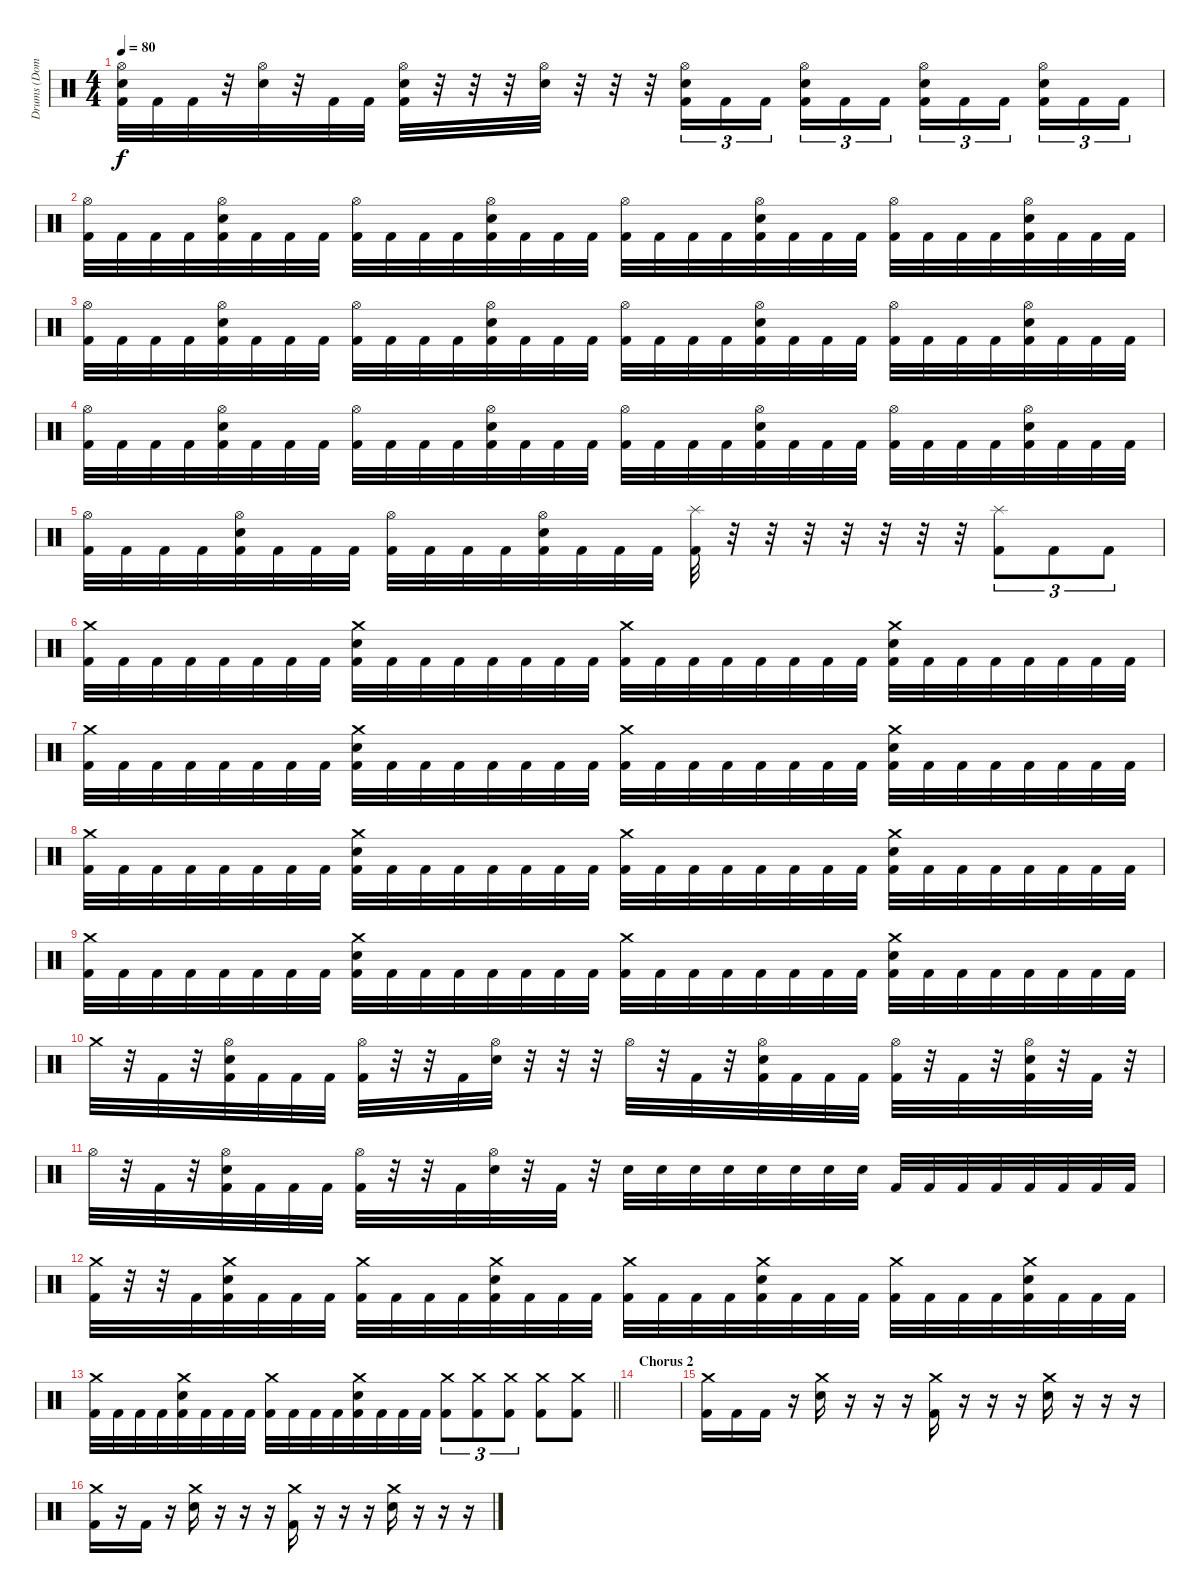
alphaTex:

\track ("Drums (Dominik)" "Drums (Dom") {instrument percussion}
\staff {score}
\articulation defaults
\ts (4 4)
\tempo 80
\clef neutral
\ks c
("Hi-Hat (open)" "Electric Snare (hit)" "Kick (hit) 2").32{dy f} "Kick (hit) 2".32 "Kick (hit) 2".32 r.32 ("Hi-Hat (open)" "Electric Snare (hit)").32 r.32 "Kick (hit) 2".32 "Kick (hit) 2".32 ("Hi-Hat (open)" "Electric Snare (hit)" "Kick (hit) 2").32 r.32 r.32 r.32 ("Hi-Hat (open)" "Electric Snare (hit)").32 r.32 r.32 r.32 ("Hi-Hat (open)" "Electric Snare (hit)" "Kick (hit) 2").16{tu (3 2)} "Kick (hit) 2".16{tu (3 2)} "Kick (hit) 2".16{tu (3 2) beam splitsecondary} ("Hi-Hat (open)" "Electric Snare (hit)" "Kick (hit) 2").16{tu (3 2)} "Kick (hit) 2".16{tu (3 2)} "Kick (hit) 2".16{tu (3 2)} ("Hi-Hat (open)" "Electric Snare (hit)" "Kick (hit) 2").16{tu (3 2)} "Kick (hit) 2".16{tu (3 2)} "Kick (hit) 2".16{tu (3 2) beam splitsecondary} ("Hi-Hat (open)" "Electric Snare (hit)" "Kick (hit) 2").16{tu (3 2)} "Kick (hit) 2".16{tu (3 2)} "Kick (hit) 2".16{tu (3 2)} |
("Hi-Hat (open)" "Kick (hit) 2").32 "Kick (hit) 2".32 "Kick (hit) 2".32 "Kick (hit) 2".32 ("Hi-Hat (open)" "Electric Snare (hit)" "Kick (hit) 2").32 "Kick (hit) 2".32 "Kick (hit) 2".32 "Kick (hit) 2".32 ("Hi-Hat (open)" "Kick (hit) 2").32 "Kick (hit) 2".32 "Kick (hit) 2".32 "Kick (hit) 2".32 ("Hi-Hat (open)" "Electric Snare (hit)" "Kick (hit) 2").32 "Kick (hit) 2".32 "Kick (hit) 2".32 "Kick (hit) 2".32 ("Hi-Hat (open)" "Kick (hit) 2").32 "Kick (hit) 2".32 "Kick (hit) 2".32 "Kick (hit) 2".32 ("Hi-Hat (open)" "Electric Snare (hit)" "Kick (hit) 2").32 "Kick (hit) 2".32 "Kick (hit) 2".32 "Kick (hit) 2".32 ("Hi-Hat (open)" "Kick (hit) 2").32 "Kick (hit) 2".32 "Kick (hit) 2".32 "Kick (hit) 2".32 ("Hi-Hat (open)" "Electric Snare (hit)" "Kick (hit) 2").32 "Kick (hit) 2".32 "Kick (hit) 2".32 "Kick (hit) 2".32 |
("Hi-Hat (open)" "Kick (hit) 2").32 "Kick (hit) 2".32 "Kick (hit) 2".32 "Kick (hit) 2".32 ("Hi-Hat (open)" "Electric Snare (hit)" "Kick (hit) 2").32 "Kick (hit) 2".32 "Kick (hit) 2".32 "Kick (hit) 2".32 ("Hi-Hat (open)" "Kick (hit) 2").32 "Kick (hit) 2".32 "Kick (hit) 2".32 "Kick (hit) 2".32 ("Hi-Hat (open)" "Electric Snare (hit)" "Kick (hit) 2").32 "Kick (hit) 2".32 "Kick (hit) 2".32 "Kick (hit) 2".32 ("Hi-Hat (open)" "Kick (hit) 2").32 "Kick (hit) 2".32 "Kick (hit) 2".32 "Kick (hit) 2".32 ("Hi-Hat (open)" "Electric Snare (hit)" "Kick (hit) 2").32 "Kick (hit) 2".32 "Kick (hit) 2".32 "Kick (hit) 2".32 ("Hi-Hat (open)" "Kick (hit) 2").32 "Kick (hit) 2".32 "Kick (hit) 2".32 "Kick (hit) 2".32 ("Hi-Hat (open)" "Electric Snare (hit)" "Kick (hit) 2").32 "Kick (hit) 2".32 "Kick (hit) 2".32 "Kick (hit) 2".32 |
("Hi-Hat (open)" "Kick (hit) 2").32 "Kick (hit) 2".32 "Kick (hit) 2".32 "Kick (hit) 2".32 ("Hi-Hat (open)" "Electric Snare (hit)" "Kick (hit) 2").32 "Kick (hit) 2".32 "Kick (hit) 2".32 "Kick (hit) 2".32 ("Hi-Hat (open)" "Kick (hit) 2").32 "Kick (hit) 2".32 "Kick (hit) 2".32 "Kick (hit) 2".32 ("Hi-Hat (open)" "Electric Snare (hit)" "Kick (hit) 2").32 "Kick (hit) 2".32 "Kick (hit) 2".32 "Kick (hit) 2".32 ("Hi-Hat (open)" "Kick (hit) 2").32 "Kick (hit) 2".32 "Kick (hit) 2".32 "Kick (hit) 2".32 ("Hi-Hat (open)" "Electric Snare (hit)" "Kick (hit) 2").32 "Kick (hit) 2".32 "Kick (hit) 2".32 "Kick (hit) 2".32 ("Hi-Hat (open)" "Kick (hit) 2").32 "Kick (hit) 2".32 "Kick (hit) 2".32 "Kick (hit) 2".32 ("Hi-Hat (open)" "Electric Snare (hit)" "Kick (hit) 2").32 "Kick (hit) 2".32 "Kick (hit) 2".32 "Kick (hit) 2".32 |
("Hi-Hat (open)" "Kick (hit) 2").32 "Kick (hit) 2".32 "Kick (hit) 2".32 "Kick (hit) 2".32 ("Hi-Hat (open)" "Electric Snare (hit)" "Kick (hit) 2").32 "Kick (hit) 2".32 "Kick (hit) 2".32 "Kick (hit) 2".32 ("Hi-Hat (open)" "Kick (hit) 2").32 "Kick (hit) 2".32 "Kick (hit) 2".32 "Kick (hit) 2".32 ("Hi-Hat (open)" "Electric Snare (hit)" "Kick (hit) 2").32 "Kick (hit) 2".32 "Kick (hit) 2".32 "Kick (hit) 2".32 ("Splash (hit)" "Kick (hit) 2").32 r.32 r.32 r.32 r.32 r.32 r.32 r.32 ("Splash (hit)" "Kick (hit) 2").8{tu (3 2)} "Kick (hit) 2".8{tu (3 2)} "Kick (hit) 2".8{tu (3 2)} |
("Crash medium (hit)" "Kick (hit) 2").32 "Kick (hit) 2".32 "Kick (hit) 2".32 "Kick (hit) 2".32 "Kick (hit) 2".32 "Kick (hit) 2".32 "Kick (hit) 2".32 "Kick (hit) 2".32 ("Crash medium (hit)" "Electric Snare (hit)" "Kick (hit) 2").32 "Kick (hit) 2".32 "Kick (hit) 2".32 "Kick (hit) 2".32 "Kick (hit) 2".32 "Kick (hit) 2".32 "Kick (hit) 2".32 "Kick (hit) 2".32 ("Crash medium (hit)" "Kick (hit) 2").32 "Kick (hit) 2".32 "Kick (hit) 2".32 "Kick (hit) 2".32 "Kick (hit) 2".32 "Kick (hit) 2".32 "Kick (hit) 2".32 "Kick (hit) 2".32 ("Crash medium (hit)" "Electric Snare (hit)" "Kick (hit) 2").32 "Kick (hit) 2".32 "Kick (hit) 2".32 "Kick (hit) 2".32 "Kick (hit) 2".32 "Kick (hit) 2".32 "Kick (hit) 2".32 "Kick (hit) 2".32 |
("Crash medium (hit)" "Kick (hit) 2").32 "Kick (hit) 2".32 "Kick (hit) 2".32 "Kick (hit) 2".32 "Kick (hit) 2".32 "Kick (hit) 2".32 "Kick (hit) 2".32 "Kick (hit) 2".32 ("Crash medium (hit)" "Electric Snare (hit)" "Kick (hit) 2").32 "Kick (hit) 2".32 "Kick (hit) 2".32 "Kick (hit) 2".32 "Kick (hit) 2".32 "Kick (hit) 2".32 "Kick (hit) 2".32 "Kick (hit) 2".32 ("Crash medium (hit)" "Kick (hit) 2").32 "Kick (hit) 2".32 "Kick (hit) 2".32 "Kick (hit) 2".32 "Kick (hit) 2".32 "Kick (hit) 2".32 "Kick (hit) 2".32 "Kick (hit) 2".32 ("Crash medium (hit)" "Electric Snare (hit)" "Kick (hit) 2").32 "Kick (hit) 2".32 "Kick (hit) 2".32 "Kick (hit) 2".32 "Kick (hit) 2".32 "Kick (hit) 2".32 "Kick (hit) 2".32 "Kick (hit) 2".32 |
("Crash medium (hit)" "Kick (hit) 2").32 "Kick (hit) 2".32 "Kick (hit) 2".32 "Kick (hit) 2".32 "Kick (hit) 2".32 "Kick (hit) 2".32 "Kick (hit) 2".32 "Kick (hit) 2".32 ("Crash medium (hit)" "Electric Snare (hit)" "Kick (hit) 2").32 "Kick (hit) 2".32 "Kick (hit) 2".32 "Kick (hit) 2".32 "Kick (hit) 2".32 "Kick (hit) 2".32 "Kick (hit) 2".32 "Kick (hit) 2".32 ("Crash medium (hit)" "Kick (hit) 2").32 "Kick (hit) 2".32 "Kick (hit) 2".32 "Kick (hit) 2".32 "Kick (hit) 2".32 "Kick (hit) 2".32 "Kick (hit) 2".32 "Kick (hit) 2".32 ("Crash medium (hit)" "Electric Snare (hit)" "Kick (hit) 2").32 "Kick (hit) 2".32 "Kick (hit) 2".32 "Kick (hit) 2".32 "Kick (hit) 2".32 "Kick (hit) 2".32 "Kick (hit) 2".32 "Kick (hit) 2".32 |
("Crash medium (hit)" "Kick (hit) 2").32 "Kick (hit) 2".32 "Kick (hit) 2".32 "Kick (hit) 2".32 "Kick (hit) 2".32 "Kick (hit) 2".32 "Kick (hit) 2".32 "Kick (hit) 2".32 ("Crash medium (hit)" "Electric Snare (hit)" "Kick (hit) 2").32 "Kick (hit) 2".32 "Kick (hit) 2".32 "Kick (hit) 2".32 "Kick (hit) 2".32 "Kick (hit) 2".32 "Kick (hit) 2".32 "Kick (hit) 2".32 ("Crash medium (hit)" "Kick (hit) 2").32 "Kick (hit) 2".32 "Kick (hit) 2".32 "Kick (hit) 2".32 "Kick (hit) 2".32 "Kick (hit) 2".32 "Kick (hit) 2".32 "Kick (hit) 2".32 ("Crash medium (hit)" "Electric Snare (hit)" "Kick (hit) 2").32 "Kick (hit) 2".32 "Kick (hit) 2".32 "Kick (hit) 2".32 "Kick (hit) 2".32 "Kick (hit) 2".32 "Kick (hit) 2".32 "Kick (hit) 2".32 |
"Crash medium (hit)".32 r.32 "Kick (hit) 2".32 r.32 ("Hi-Hat (open)" "Electric Snare (hit)" "Kick (hit) 2").32 "Kick (hit) 2".32 "Kick (hit) 2".32 "Kick (hit) 2".32 ("Hi-Hat (open)" "Kick (hit) 2").32 r.32 r.32 "Kick (hit) 2".32 ("Hi-Hat (open)" "Electric Snare (hit)").32 r.32 r.32 r.32 "Hi-Hat (open)".32 r.32 "Kick (hit) 2".32 r.32 ("Hi-Hat (open)" "Electric Snare (hit)" "Kick (hit) 2").32 "Kick (hit) 2".32 "Kick (hit) 2".32 "Kick (hit) 2".32 ("Hi-Hat (open)" "Kick (hit) 2").32 r.32 "Kick (hit) 2".32 r.32 ("Hi-Hat (open)" "Electric Snare (hit)" "Kick (hit) 2").32 r.32 "Kick (hit) 2".32 r.32 |
"Hi-Hat (open)".32 r.32 "Kick (hit) 2".32 r.32 ("Hi-Hat (open)" "Electric Snare (hit)" "Kick (hit) 2").32 "Kick (hit) 2".32 "Kick (hit) 2".32 "Kick (hit) 2".32 ("Hi-Hat (open)" "Kick (hit) 2").32 r.32 r.32 "Kick (hit) 2".32 ("Hi-Hat (open)" "Electric Snare (hit)").32 r.32 "Kick (hit) 2".32 r.32 "Electric Snare (hit)".32 "Electric Snare (hit)".32 "Electric Snare (hit)".32 "Electric Snare (hit)".32 "Electric Snare (hit)".32 "Electric Snare (hit)".32 "Electric Snare (hit)".32 "Electric Snare (hit)".32 "Kick (hit) 2".32 "Kick (hit) 2".32 "Kick (hit) 2".32 "Kick (hit) 2".32 "Kick (hit) 2".32 "Kick (hit) 2".32 "Kick (hit) 2".32 "Kick (hit) 2".32 |
("Crash medium (hit)" "Kick (hit) 2").32 r.32 r.32 "Kick (hit) 2".32 ("Crash medium (hit)" "Electric Snare (hit)" "Kick (hit) 2").32 "Kick (hit) 2".32 "Kick (hit) 2".32 "Kick (hit) 2".32 ("Crash medium (hit)" "Kick (hit) 2").32 "Kick (hit) 2".32 "Kick (hit) 2".32 "Kick (hit) 2".32 ("Crash medium (hit)" "Electric Snare (hit)" "Kick (hit) 2").32 "Kick (hit) 2".32 "Kick (hit) 2".32 "Kick (hit) 2".32 ("Crash medium (hit)" "Kick (hit) 2").32 "Kick (hit) 2".32 "Kick (hit) 2".32 "Kick (hit) 2".32 ("Crash medium (hit)" "Electric Snare (hit)" "Kick (hit) 2").32 "Kick (hit) 2".32 "Kick (hit) 2".32 "Kick (hit) 2".32 ("Crash medium (hit)" "Kick (hit) 2").32 "Kick (hit) 2".32 "Kick (hit) 2".32 "Kick (hit) 2".32 ("Crash medium (hit)" "Electric Snare (hit)" "Kick (hit) 2").32 "Kick (hit) 2".32 "Kick (hit) 2".32 "Kick (hit) 2".32 |
\barLineRight lightlight
("Crash medium (hit)" "Kick (hit) 2").32 "Kick (hit) 2".32 "Kick (hit) 2".32 "Kick (hit) 2".32 ("Crash medium (hit)" "Electric Snare (hit)" "Kick (hit) 2").32 "Kick (hit) 2".32 "Kick (hit) 2".32 "Kick (hit) 2".32 ("Crash medium (hit)" "Kick (hit) 2").32 "Kick (hit) 2".32 "Kick (hit) 2".32 "Kick (hit) 2".32 ("Crash medium (hit)" "Electric Snare (hit)" "Kick (hit) 2").32 "Kick (hit) 2".32 "Kick (hit) 2".32 "Kick (hit) 2".32 ("Crash medium (hit)" "Kick (hit) 2").8{tu (3 2)} ("Crash medium (hit)" "Kick (hit) 2").8{tu (3 2)} ("Crash medium (hit)" "Kick (hit) 2").8{tu (3 2)} ("Crash medium (hit)" "Kick (hit) 2").8 ("Crash medium (hit)" "Kick (hit) 2").8 |
\section ("" "Chorus 2")
|
("Crash medium (hit)" "Kick (hit) 2").16 "Kick (hit) 2".16 "Kick (hit) 2".16 r.16 ("Crash medium (hit)" "Electric Snare (hit)").16 r.16 r.16 r.16 ("Crash medium (hit)" "Kick (hit) 2").16 r.16 r.16 r.16 ("Crash medium (hit)" "Electric Snare (hit)").16 r.16 r.16 r.16 |
("Crash medium (hit)" "Kick (hit) 2").16 r.16 "Kick (hit) 2".16 r.16 ("Crash medium (hit)" "Electric Snare (hit)").16 r.16 r.16 r.16 ("Crash medium (hit)" "Kick (hit) 2").16 r.16 r.16 r.16 ("Crash medium (hit)" "Electric Snare (hit)").16 r.16 r.16 r.16
